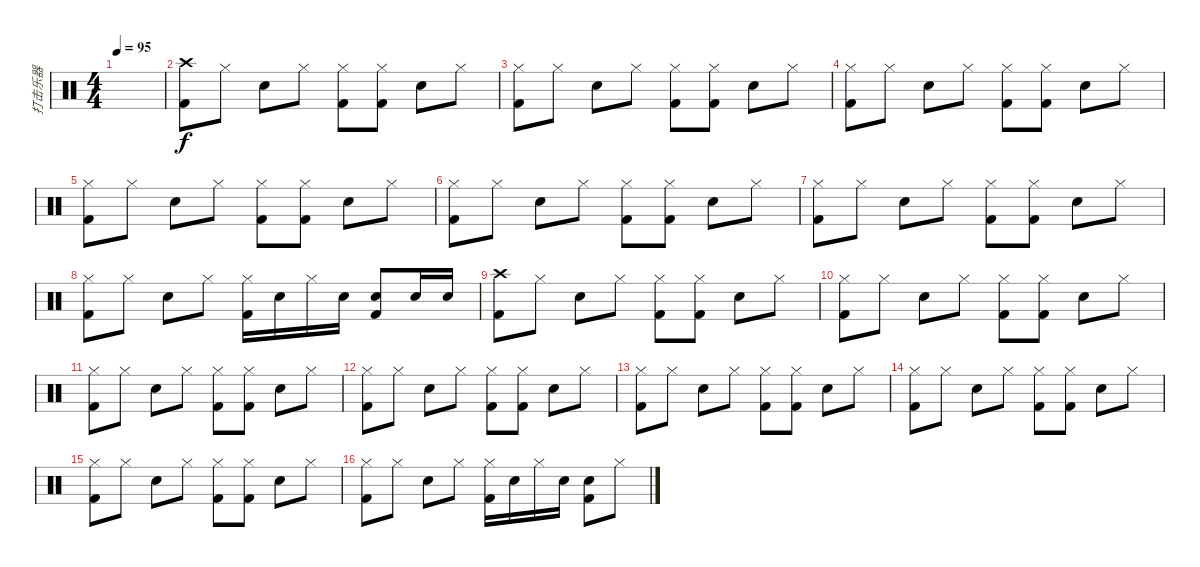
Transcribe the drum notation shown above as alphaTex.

\track ("打击乐器" "打击乐器") {instrument percussion}
\staff {score}
\articulation defaults
\ts (4 4)
\tempo 95
\clef neutral
\ks c
|
("Crash high (hit)" "Kick (hit) 2").8 "Hi-Hat (closed)".8 "Snare (hit) 2".8 "Hi-Hat (closed)".8 ("Hi-Hat (closed)" "Kick (hit) 2").8 ("Hi-Hat (closed)" "Kick (hit) 2").8 "Snare (hit) 2".8 "Hi-Hat (closed)".8 |
("Hi-Hat (closed)" "Kick (hit) 2").8 "Hi-Hat (closed)".8 "Snare (hit) 2".8 "Hi-Hat (closed)".8 ("Hi-Hat (closed)" "Kick (hit) 2").8 ("Hi-Hat (closed)" "Kick (hit) 2").8 "Snare (hit) 2".8 "Hi-Hat (closed)".8 |
("Hi-Hat (closed)" "Kick (hit) 2").8 "Hi-Hat (closed)".8 "Snare (hit) 2".8 "Hi-Hat (closed)".8 ("Hi-Hat (closed)" "Kick (hit) 2").8 ("Hi-Hat (closed)" "Kick (hit) 2").8 "Snare (hit) 2".8 "Hi-Hat (closed)".8 |
("Hi-Hat (closed)" "Kick (hit) 2").8 "Hi-Hat (closed)".8 "Snare (hit) 2".8 "Hi-Hat (closed)".8 ("Hi-Hat (closed)" "Kick (hit) 2").8 ("Hi-Hat (closed)" "Kick (hit) 2").8 "Snare (hit) 2".8 "Hi-Hat (closed)".8 |
("Hi-Hat (closed)" "Kick (hit) 2").8 "Hi-Hat (closed)".8 "Snare (hit) 2".8 "Hi-Hat (closed)".8 ("Hi-Hat (closed)" "Kick (hit) 2").8 ("Hi-Hat (closed)" "Kick (hit) 2").8 "Snare (hit) 2".8 "Hi-Hat (closed)".8 |
("Hi-Hat (closed)" "Kick (hit) 2").8 "Hi-Hat (closed)".8 "Snare (hit) 2".8 "Hi-Hat (closed)".8 ("Hi-Hat (closed)" "Kick (hit) 2").8 ("Hi-Hat (closed)" "Kick (hit) 2").8 "Snare (hit) 2".8 "Hi-Hat (closed)".8 |
("Hi-Hat (closed)" "Kick (hit) 2").8 "Hi-Hat (closed)".8 "Snare (hit) 2".8 "Hi-Hat (closed)".8 ("Hi-Hat (closed)" "Kick (hit) 2").16 "Snare (hit) 2".16 "Hi-Hat (closed)".16 "Snare (hit) 2".16 ("Snare (hit) 2" "Kick (hit) 2").8 "Snare (hit) 2".16 "Snare (hit) 2".16 |
("Crash high (hit)" "Kick (hit) 2").8 "Hi-Hat (closed)".8 "Snare (hit) 2".8 "Hi-Hat (closed)".8 ("Hi-Hat (closed)" "Kick (hit) 2").8 ("Hi-Hat (closed)" "Kick (hit) 2").8 "Snare (hit) 2".8 "Hi-Hat (closed)".8 |
("Hi-Hat (closed)" "Kick (hit) 2").8 "Hi-Hat (closed)".8 "Snare (hit) 2".8 "Hi-Hat (closed)".8 ("Hi-Hat (closed)" "Kick (hit) 2").8 ("Hi-Hat (closed)" "Kick (hit) 2").8 "Snare (hit) 2".8 "Hi-Hat (closed)".8 |
("Hi-Hat (closed)" "Kick (hit) 2").8 "Hi-Hat (closed)".8 "Snare (hit) 2".8 "Hi-Hat (closed)".8 ("Hi-Hat (closed)" "Kick (hit) 2").8 ("Hi-Hat (closed)" "Kick (hit) 2").8 "Snare (hit) 2".8 "Hi-Hat (closed)".8 |
("Hi-Hat (closed)" "Kick (hit) 2").8 "Hi-Hat (closed)".8 "Snare (hit) 2".8 "Hi-Hat (closed)".8 ("Hi-Hat (closed)" "Kick (hit) 2").8 ("Hi-Hat (closed)" "Kick (hit) 2").8 "Snare (hit) 2".8 "Hi-Hat (closed)".8 |
("Hi-Hat (closed)" "Kick (hit) 2").8 "Hi-Hat (closed)".8 "Snare (hit) 2".8 "Hi-Hat (closed)".8 ("Hi-Hat (closed)" "Kick (hit) 2").8 ("Hi-Hat (closed)" "Kick (hit) 2").8 "Snare (hit) 2".8 "Hi-Hat (closed)".8 |
("Hi-Hat (closed)" "Kick (hit) 2").8 "Hi-Hat (closed)".8 "Snare (hit) 2".8 "Hi-Hat (closed)".8 ("Hi-Hat (closed)" "Kick (hit) 2").8 ("Hi-Hat (closed)" "Kick (hit) 2").8 "Snare (hit) 2".8 "Hi-Hat (closed)".8 |
("Hi-Hat (closed)" "Kick (hit) 2").8 "Hi-Hat (closed)".8 "Snare (hit) 2".8 "Hi-Hat (closed)".8 ("Hi-Hat (closed)" "Kick (hit) 2").8 ("Hi-Hat (closed)" "Kick (hit) 2").8 "Snare (hit) 2".8 "Hi-Hat (closed)".8 |
("Hi-Hat (closed)" "Kick (hit) 2").8 "Hi-Hat (closed)".8 "Snare (hit) 2".8 "Hi-Hat (closed)".8 ("Hi-Hat (closed)" "Kick (hit) 2").16 "Snare (hit) 2".16 "Hi-Hat (closed)".16 "Snare (hit) 2".16 ("Snare (hit) 2" "Kick (hit) 2").8 "Hi-Hat (closed)".8
